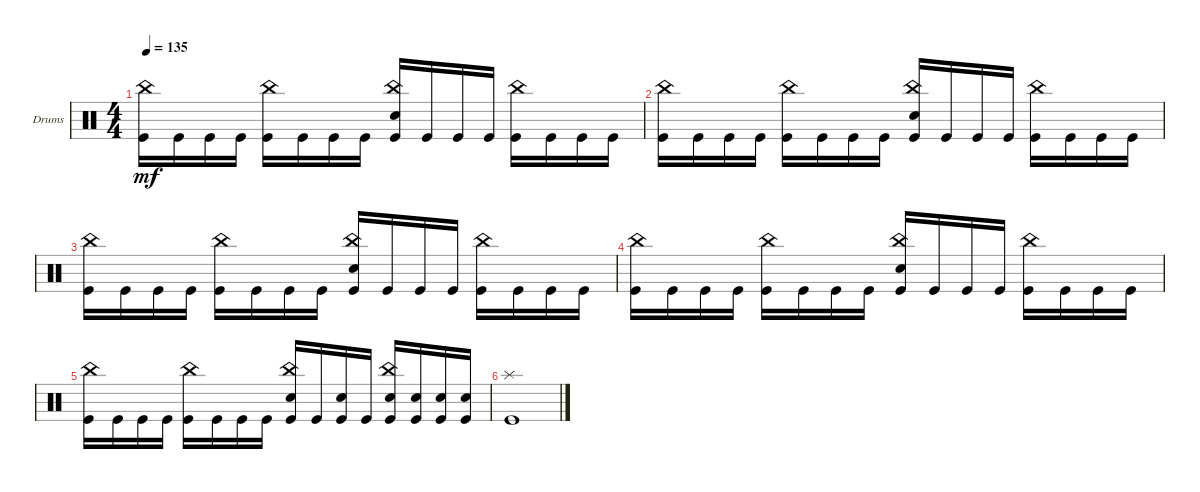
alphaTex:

\defaultSystemsLayout 4
\bracketExtendMode groupsimilarinstruments
\firstSystemTrackNameOrientation horizontal
\otherSystemsTrackNameOrientation horizontal
\track ("Rolo" "Drums") {instrument percussion}
\staff {score}
\articulation defaults
\ts (4 4)
\tempo 135
\clef neutral
\ks c
("Kick (hit)" "China (hit)").16{dy mf} "Kick (hit)".16 "Kick (hit)".16 "Kick (hit)".16 ("Kick (hit)" "China (hit)").16 "Kick (hit)".16 "Kick (hit)".16 "Kick (hit)".16 ("Kick (hit)" "Snare (hit) 2" "China (hit)").16 "Kick (hit)".16 "Kick (hit)".16 "Kick (hit)".16 ("Kick (hit)" "China (hit)").16 "Kick (hit)".16 "Kick (hit)".16 "Kick (hit)".16 |
("Kick (hit)" "China (hit)").16 "Kick (hit)".16 "Kick (hit)".16 "Kick (hit)".16 ("Kick (hit)" "China (hit)").16 "Kick (hit)".16 "Kick (hit)".16 "Kick (hit)".16 ("Kick (hit)" "Snare (hit) 2" "China (hit)").16 "Kick (hit)".16 "Kick (hit)".16 "Kick (hit)".16 ("Kick (hit)" "China (hit)").16 "Kick (hit)".16 "Kick (hit)".16 "Kick (hit)".16 |
("Kick (hit)" "China (hit)").16 "Kick (hit)".16 "Kick (hit)".16 "Kick (hit)".16 ("Kick (hit)" "China (hit)").16 "Kick (hit)".16 "Kick (hit)".16 "Kick (hit)".16 ("Kick (hit)" "Snare (hit) 2" "China (hit)").16 "Kick (hit)".16 "Kick (hit)".16 "Kick (hit)".16 ("Kick (hit)" "China (hit)").16 "Kick (hit)".16 "Kick (hit)".16 "Kick (hit)".16 |
("Kick (hit)" "China (hit)").16 "Kick (hit)".16 "Kick (hit)".16 "Kick (hit)".16 ("Kick (hit)" "China (hit)").16 "Kick (hit)".16 "Kick (hit)".16 "Kick (hit)".16 ("Kick (hit)" "Snare (hit) 2" "China (hit)").16 "Kick (hit)".16 "Kick (hit)".16 "Kick (hit)".16 ("Kick (hit)" "China (hit)").16 "Kick (hit)".16 "Kick (hit)".16 "Kick (hit)".16 |
("Kick (hit)" "China (hit)").16 "Kick (hit)".16 "Kick (hit)".16 "Kick (hit)".16 ("Kick (hit)" "China (hit)").16 "Kick (hit)".16 "Kick (hit)".16 "Kick (hit)".16 ("Kick (hit)" "Snare (hit) 2" "China (hit)").16 "Kick (hit)".16 ("Kick (hit)" "Snare (hit) 2").16 "Kick (hit)".16 ("Kick (hit)" "Snare (hit) 2" "China (hit)").16 ("Kick (hit)" "Snare (hit) 2").16 ("Kick (hit)" "Snare (hit) 2").16 ("Kick (hit)" "Snare (hit) 2").16 |
("Kick (hit)" "Splash (hit)").1
